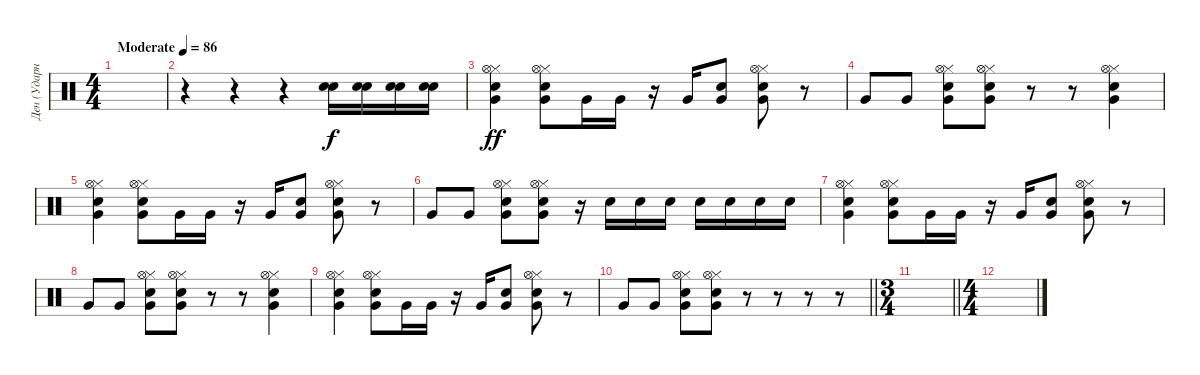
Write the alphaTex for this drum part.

\track ("Ден (Ударные)" "Ден (Ударн") {instrument percussion}
\staff {score}
\articulation defaults
\ts (4 4)
\tempo (86 "Moderate")
\clef neutral
\ks c
|
r.4 r.4 r.4 ("Electric Snare (hit)" "Electric Snare (hit)").16 ("Electric Snare (hit)" "Electric Snare (hit)").16 ("Electric Snare (hit)" "Electric Snare (hit)").16 ("Electric Snare (hit)" "Electric Snare (hit)").16 |
("Very Low Tom (hit)" "Electric Snare (hit)" "Hi-Hat (closed)" "Hi-Hat (open)").4{dy ff} ("Very Low Tom (hit)" "Electric Snare (hit)" "Hi-Hat (closed)" "Hi-Hat (open)").8 "Very Low Tom (hit)".16 "Very Low Tom (hit)".16 r.16 "Very Low Tom (hit)".16 ("Electric Snare (hit)" "Very Low Tom (hit)").8 ("Very Low Tom (hit)" "Electric Snare (hit)" "Hi-Hat (closed)" "Hi-Hat (open)").8 r.8 |
"Very Low Tom (hit)".8 "Very Low Tom (hit)".8 ("Very Low Tom (hit)" "Electric Snare (hit)" "Hi-Hat (closed)" "Hi-Hat (open)").8 ("Very Low Tom (hit)" "Electric Snare (hit)" "Hi-Hat (closed)" "Hi-Hat (open)").8 r.8 r.8 ("Hi-Hat (closed)" "Electric Snare (hit)" "Very Low Tom (hit)" "Hi-Hat (open)").4 |
("Very Low Tom (hit)" "Electric Snare (hit)" "Hi-Hat (closed)" "Hi-Hat (open)").4 ("Very Low Tom (hit)" "Electric Snare (hit)" "Hi-Hat (closed)" "Hi-Hat (open)").8 "Very Low Tom (hit)".16 "Very Low Tom (hit)".16 r.16 "Very Low Tom (hit)".16 ("Electric Snare (hit)" "Very Low Tom (hit)").8 ("Very Low Tom (hit)" "Electric Snare (hit)" "Hi-Hat (closed)" "Hi-Hat (open)").8 r.8 |
"Very Low Tom (hit)".8 "Very Low Tom (hit)".8 ("Very Low Tom (hit)" "Electric Snare (hit)" "Hi-Hat (closed)" "Hi-Hat (open)").8 ("Very Low Tom (hit)" "Electric Snare (hit)" "Hi-Hat (closed)" "Hi-Hat (open)").8 r.16 "Electric Snare (hit)".16 "Electric Snare (hit)".16 "Electric Snare (hit)".16 "Electric Snare (hit)".16 "Electric Snare (hit)".16 "Electric Snare (hit)".16 "Electric Snare (hit)".16 |
("Very Low Tom (hit)" "Electric Snare (hit)" "Hi-Hat (closed)" "Hi-Hat (open)").4 ("Very Low Tom (hit)" "Electric Snare (hit)" "Hi-Hat (closed)" "Hi-Hat (open)").8 "Very Low Tom (hit)".16 "Very Low Tom (hit)".16 r.16 "Very Low Tom (hit)".16 ("Electric Snare (hit)" "Very Low Tom (hit)").8 ("Very Low Tom (hit)" "Electric Snare (hit)" "Hi-Hat (closed)" "Hi-Hat (open)").8 r.8 |
"Very Low Tom (hit)".8 "Very Low Tom (hit)".8 ("Very Low Tom (hit)" "Electric Snare (hit)" "Hi-Hat (closed)" "Hi-Hat (open)").8 ("Very Low Tom (hit)" "Electric Snare (hit)" "Hi-Hat (closed)" "Hi-Hat (open)").8 r.8 r.8 ("Hi-Hat (closed)" "Electric Snare (hit)" "Very Low Tom (hit)" "Hi-Hat (open)").4 |
("Very Low Tom (hit)" "Electric Snare (hit)" "Hi-Hat (closed)" "Hi-Hat (open)").4 ("Very Low Tom (hit)" "Electric Snare (hit)" "Hi-Hat (closed)" "Hi-Hat (open)").8 "Very Low Tom (hit)".16 "Very Low Tom (hit)".16 r.16 "Very Low Tom (hit)".16 ("Electric Snare (hit)" "Very Low Tom (hit)").8 ("Very Low Tom (hit)" "Electric Snare (hit)" "Hi-Hat (closed)" "Hi-Hat (open)").8 r.8 |
\barLineRight lightlight "Very Low Tom (hit)".8 "Very Low Tom (hit)".8
("Very Low Tom (hit)" "Electric Snare (hit)" "Hi-Hat (closed)" "Hi-Hat (open)").8 ("Very Low Tom (hit)" "Electric Snare (hit)" "Hi-Hat (closed)" "Hi-Hat (open)").8 r.8 r.8 r.8 r.8 |
\ts (3 4)
\barLineRight lightlight
|
\ts (4 4)
